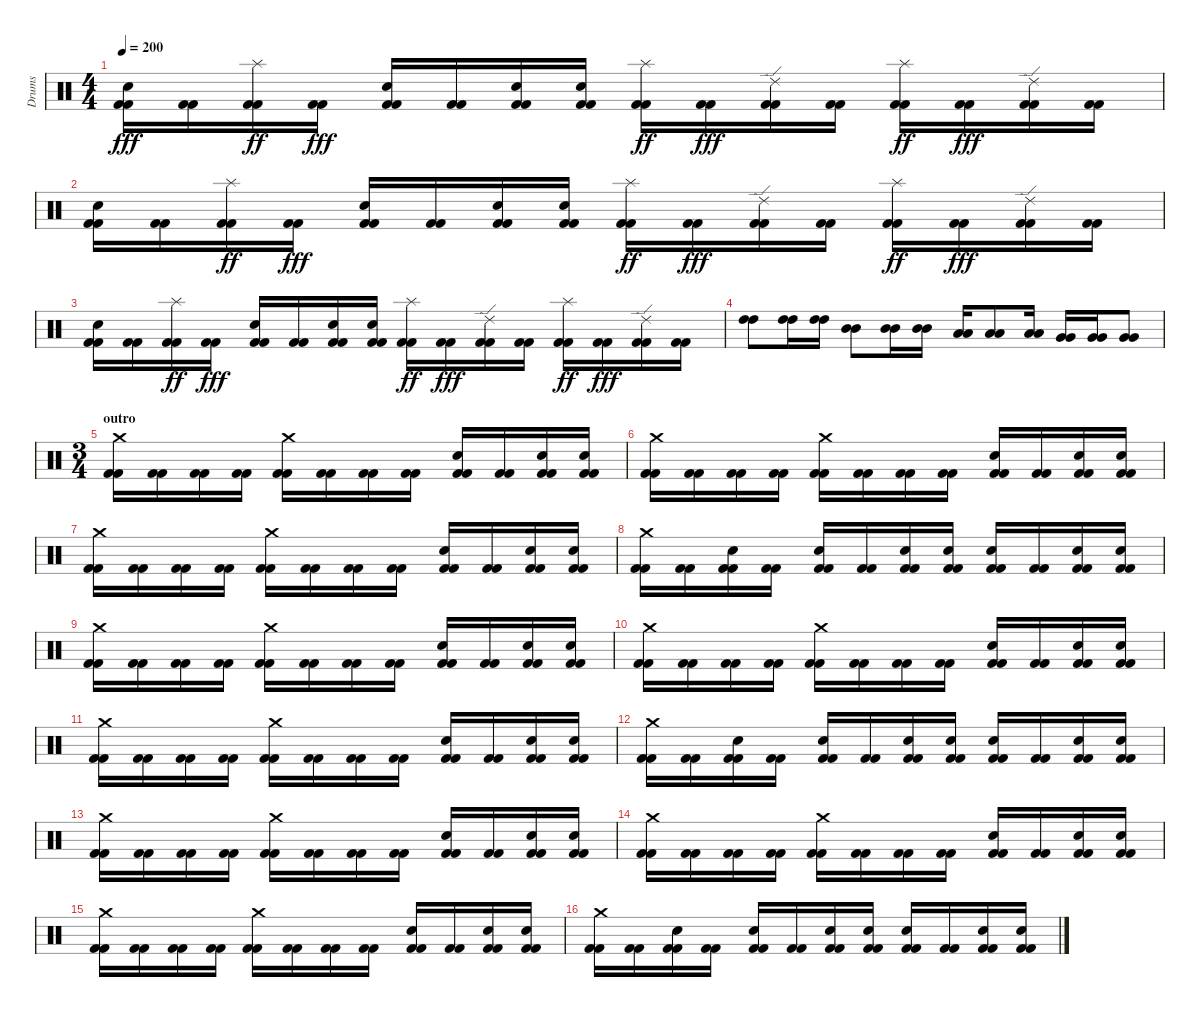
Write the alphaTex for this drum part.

\track ("Drums" "Drums") {instrument percussion}
\staff {score}
\articulation defaults
\ts (4 4)
\tempo 200
\clef neutral
\ks c
("Kick (hit) 2" "Kick (hit) 2" "Electric Snare (hit)").16{dy fff} ("Kick (hit) 2" "Kick (hit) 2").16 ("Kick (hit) 2" "Kick (hit) 2" "Splash (hit)").16{dy ff} ("Kick (hit) 2" "Kick (hit) 2").16{dy fff} ("Kick (hit) 2" "Kick (hit) 2" "Electric Snare (hit)").16 ("Kick (hit) 2" "Kick (hit) 2").16 ("Kick (hit) 2" "Kick (hit) 2" "Electric Snare (hit)").16 ("Kick (hit) 2" "Kick (hit) 2" "Electric Snare (hit)").16 ("Kick (hit) 2" "Kick (hit) 2" "Splash (hit)").16{dy ff} ("Kick (hit) 2" "Kick (hit) 2").16{dy fff} ("Kick (hit) 2" "Kick (hit) 2" "Ride (edge) 2").16 ("Kick (hit) 2" "Kick (hit) 2").16 ("Kick (hit) 2" "Kick (hit) 2" "Splash (hit)").16{dy ff} ("Kick (hit) 2" "Kick (hit) 2").16{dy fff} ("Kick (hit) 2" "Kick (hit) 2" "Ride (edge) 2").16 ("Kick (hit) 2" "Kick (hit) 2").16 |
("Kick (hit) 2" "Kick (hit) 2" "Electric Snare (hit)").16 ("Kick (hit) 2" "Kick (hit) 2").16 ("Kick (hit) 2" "Kick (hit) 2" "Splash (hit)").16{dy ff} ("Kick (hit) 2" "Kick (hit) 2").16{dy fff} ("Kick (hit) 2" "Kick (hit) 2" "Electric Snare (hit)").16 ("Kick (hit) 2" "Kick (hit) 2").16 ("Kick (hit) 2" "Kick (hit) 2" "Electric Snare (hit)").16 ("Kick (hit) 2" "Kick (hit) 2" "Electric Snare (hit)").16 ("Kick (hit) 2" "Kick (hit) 2" "Splash (hit)").16{dy ff} ("Kick (hit) 2" "Kick (hit) 2").16{dy fff} ("Kick (hit) 2" "Kick (hit) 2" "Ride (edge) 2").16 ("Kick (hit) 2" "Kick (hit) 2").16 ("Kick (hit) 2" "Kick (hit) 2" "Splash (hit)").16{dy ff} ("Kick (hit) 2" "Kick (hit) 2").16{dy fff} ("Kick (hit) 2" "Kick (hit) 2" "Ride (edge) 2").16 ("Kick (hit) 2" "Kick (hit) 2").16 |
("Kick (hit) 2" "Kick (hit) 2" "Electric Snare (hit)").16 ("Kick (hit) 2" "Kick (hit) 2").16 ("Kick (hit) 2" "Kick (hit) 2" "Splash (hit)").16{dy ff} ("Kick (hit) 2" "Kick (hit) 2").16{dy fff} ("Kick (hit) 2" "Kick (hit) 2" "Electric Snare (hit)").16 ("Kick (hit) 2" "Kick (hit) 2").16 ("Kick (hit) 2" "Kick (hit) 2" "Electric Snare (hit)").16 ("Kick (hit) 2" "Kick (hit) 2" "Electric Snare (hit)").16 ("Kick (hit) 2" "Kick (hit) 2" "Splash (hit)").16{dy ff} ("Kick (hit) 2" "Kick (hit) 2").16{dy fff} ("Kick (hit) 2" "Kick (hit) 2" "Ride (edge) 2").16 ("Kick (hit) 2" "Kick (hit) 2").16 ("Kick (hit) 2" "Kick (hit) 2" "Splash (hit)").16{dy ff} ("Kick (hit) 2" "Kick (hit) 2").16{dy fff} ("Kick (hit) 2" "Kick (hit) 2" "Ride (edge) 2").16 ("Kick (hit) 2" "Kick (hit) 2").16 |
("High Tom (hit)" "High Tom (hit)").8 ("High Tom (hit)" "High Tom (hit)").16 ("High Tom (hit)" "High Tom (hit)").16 ("Mid Tom (hit)" "Mid Tom (hit)").8 ("Mid Tom (hit)" "Mid Tom (hit)").16 ("Mid Tom (hit)" "Mid Tom (hit)").16 ("Low Tom (hit)" "Low Tom (hit)").16 ("Low Tom (hit)" "Low Tom (hit)").8 ("Low Tom (hit)" "Low Tom (hit)").16 ("Very Low Tom (hit)" "Very Low Tom (hit)").16 ("Very Low Tom (hit)" "Very Low Tom (hit)").16 ("Very Low Tom (hit)" "Very Low Tom (hit)").8 |
\ts (3 4)
\section ("" "outro")
("Crash medium (hit)" "Kick (hit) 2" "Kick (hit) 2").16 ("Kick (hit) 2" "Kick (hit) 2").16 ("Kick (hit) 2" "Kick (hit) 2").16 ("Kick (hit) 2" "Kick (hit) 2").16 ("Crash medium (hit)" "Kick (hit) 2" "Kick (hit) 2").16 ("Kick (hit) 2" "Kick (hit) 2").16 ("Kick (hit) 2" "Kick (hit) 2").16 ("Kick (hit) 2" "Kick (hit) 2").16 ("Electric Snare (hit)" "Kick (hit) 2" "Kick (hit) 2").16 ("Kick (hit) 2" "Kick (hit) 2").16 ("Electric Snare (hit)" "Kick (hit) 2" "Kick (hit) 2").16 ("Electric Snare (hit)" "Kick (hit) 2" "Kick (hit) 2").16 |
("Crash medium (hit)" "Kick (hit) 2" "Kick (hit) 2").16 ("Kick (hit) 2" "Kick (hit) 2").16 ("Kick (hit) 2" "Kick (hit) 2").16 ("Kick (hit) 2" "Kick (hit) 2").16 ("Crash medium (hit)" "Kick (hit) 2" "Kick (hit) 2").16 ("Kick (hit) 2" "Kick (hit) 2").16 ("Kick (hit) 2" "Kick (hit) 2").16 ("Kick (hit) 2" "Kick (hit) 2").16 ("Electric Snare (hit)" "Kick (hit) 2" "Kick (hit) 2").16 ("Kick (hit) 2" "Kick (hit) 2").16 ("Electric Snare (hit)" "Kick (hit) 2" "Kick (hit) 2").16 ("Electric Snare (hit)" "Kick (hit) 2" "Kick (hit) 2").16 |
("Crash medium (hit)" "Kick (hit) 2" "Kick (hit) 2").16 ("Kick (hit) 2" "Kick (hit) 2").16 ("Kick (hit) 2" "Kick (hit) 2").16 ("Kick (hit) 2" "Kick (hit) 2").16 ("Crash medium (hit)" "Kick (hit) 2" "Kick (hit) 2").16 ("Kick (hit) 2" "Kick (hit) 2").16 ("Kick (hit) 2" "Kick (hit) 2").16 ("Kick (hit) 2" "Kick (hit) 2").16 ("Electric Snare (hit)" "Kick (hit) 2" "Kick (hit) 2").16 ("Kick (hit) 2" "Kick (hit) 2").16 ("Electric Snare (hit)" "Kick (hit) 2" "Kick (hit) 2").16 ("Electric Snare (hit)" "Kick (hit) 2" "Kick (hit) 2").16 |
("Crash medium (hit)" "Kick (hit) 2" "Kick (hit) 2").16 ("Kick (hit) 2" "Kick (hit) 2").16 ("Electric Snare (hit)" "Kick (hit) 2" "Kick (hit) 2").16 ("Kick (hit) 2" "Kick (hit) 2").16 ("Electric Snare (hit)" "Kick (hit) 2" "Kick (hit) 2").16 ("Kick (hit) 2" "Kick (hit) 2").16 ("Electric Snare (hit)" "Kick (hit) 2" "Kick (hit) 2").16 ("Electric Snare (hit)" "Kick (hit) 2" "Kick (hit) 2").16 ("Electric Snare (hit)" "Kick (hit) 2" "Kick (hit) 2").16 ("Kick (hit) 2" "Kick (hit) 2").16 ("Electric Snare (hit)" "Kick (hit) 2" "Kick (hit) 2").16 ("Electric Snare (hit)" "Kick (hit) 2" "Kick (hit) 2").16 |
("Crash medium (hit)" "Kick (hit) 2" "Kick (hit) 2").16 ("Kick (hit) 2" "Kick (hit) 2").16 ("Kick (hit) 2" "Kick (hit) 2").16 ("Kick (hit) 2" "Kick (hit) 2").16 ("Crash medium (hit)" "Kick (hit) 2" "Kick (hit) 2").16 ("Kick (hit) 2" "Kick (hit) 2").16 ("Kick (hit) 2" "Kick (hit) 2").16 ("Kick (hit) 2" "Kick (hit) 2").16 ("Electric Snare (hit)" "Kick (hit) 2" "Kick (hit) 2").16 ("Kick (hit) 2" "Kick (hit) 2").16 ("Electric Snare (hit)" "Kick (hit) 2" "Kick (hit) 2").16 ("Electric Snare (hit)" "Kick (hit) 2" "Kick (hit) 2").16 |
("Crash medium (hit)" "Kick (hit) 2" "Kick (hit) 2").16 ("Kick (hit) 2" "Kick (hit) 2").16 ("Kick (hit) 2" "Kick (hit) 2").16 ("Kick (hit) 2" "Kick (hit) 2").16 ("Crash medium (hit)" "Kick (hit) 2" "Kick (hit) 2").16 ("Kick (hit) 2" "Kick (hit) 2").16 ("Kick (hit) 2" "Kick (hit) 2").16 ("Kick (hit) 2" "Kick (hit) 2").16 ("Electric Snare (hit)" "Kick (hit) 2" "Kick (hit) 2").16 ("Kick (hit) 2" "Kick (hit) 2").16 ("Electric Snare (hit)" "Kick (hit) 2" "Kick (hit) 2").16 ("Electric Snare (hit)" "Kick (hit) 2" "Kick (hit) 2").16 |
("Crash medium (hit)" "Kick (hit) 2" "Kick (hit) 2").16 ("Kick (hit) 2" "Kick (hit) 2").16 ("Kick (hit) 2" "Kick (hit) 2").16 ("Kick (hit) 2" "Kick (hit) 2").16 ("Crash medium (hit)" "Kick (hit) 2" "Kick (hit) 2").16 ("Kick (hit) 2" "Kick (hit) 2").16 ("Kick (hit) 2" "Kick (hit) 2").16 ("Kick (hit) 2" "Kick (hit) 2").16 ("Electric Snare (hit)" "Kick (hit) 2" "Kick (hit) 2").16 ("Kick (hit) 2" "Kick (hit) 2").16 ("Electric Snare (hit)" "Kick (hit) 2" "Kick (hit) 2").16 ("Electric Snare (hit)" "Kick (hit) 2" "Kick (hit) 2").16 |
("Crash medium (hit)" "Kick (hit) 2" "Kick (hit) 2").16 ("Kick (hit) 2" "Kick (hit) 2").16 ("Electric Snare (hit)" "Kick (hit) 2" "Kick (hit) 2").16 ("Kick (hit) 2" "Kick (hit) 2").16 ("Electric Snare (hit)" "Kick (hit) 2" "Kick (hit) 2").16 ("Kick (hit) 2" "Kick (hit) 2").16 ("Electric Snare (hit)" "Kick (hit) 2" "Kick (hit) 2").16 ("Electric Snare (hit)" "Kick (hit) 2" "Kick (hit) 2").16 ("Electric Snare (hit)" "Kick (hit) 2" "Kick (hit) 2").16 ("Kick (hit) 2" "Kick (hit) 2").16 ("Electric Snare (hit)" "Kick (hit) 2" "Kick (hit) 2").16 ("Electric Snare (hit)" "Kick (hit) 2" "Kick (hit) 2").16 |
("Crash medium (hit)" "Kick (hit) 2" "Kick (hit) 2").16 ("Kick (hit) 2" "Kick (hit) 2").16 ("Kick (hit) 2" "Kick (hit) 2").16 ("Kick (hit) 2" "Kick (hit) 2").16 ("Crash medium (hit)" "Kick (hit) 2" "Kick (hit) 2").16 ("Kick (hit) 2" "Kick (hit) 2").16 ("Kick (hit) 2" "Kick (hit) 2").16 ("Kick (hit) 2" "Kick (hit) 2").16 ("Electric Snare (hit)" "Kick (hit) 2" "Kick (hit) 2").16 ("Kick (hit) 2" "Kick (hit) 2").16 ("Electric Snare (hit)" "Kick (hit) 2" "Kick (hit) 2").16 ("Electric Snare (hit)" "Kick (hit) 2" "Kick (hit) 2").16 |
("Crash medium (hit)" "Kick (hit) 2" "Kick (hit) 2").16 ("Kick (hit) 2" "Kick (hit) 2").16 ("Kick (hit) 2" "Kick (hit) 2").16 ("Kick (hit) 2" "Kick (hit) 2").16 ("Crash medium (hit)" "Kick (hit) 2" "Kick (hit) 2").16 ("Kick (hit) 2" "Kick (hit) 2").16 ("Kick (hit) 2" "Kick (hit) 2").16 ("Kick (hit) 2" "Kick (hit) 2").16 ("Electric Snare (hit)" "Kick (hit) 2" "Kick (hit) 2").16 ("Kick (hit) 2" "Kick (hit) 2").16 ("Electric Snare (hit)" "Kick (hit) 2" "Kick (hit) 2").16 ("Electric Snare (hit)" "Kick (hit) 2" "Kick (hit) 2").16 |
("Crash medium (hit)" "Kick (hit) 2" "Kick (hit) 2").16 ("Kick (hit) 2" "Kick (hit) 2").16 ("Kick (hit) 2" "Kick (hit) 2").16 ("Kick (hit) 2" "Kick (hit) 2").16 ("Crash medium (hit)" "Kick (hit) 2" "Kick (hit) 2").16 ("Kick (hit) 2" "Kick (hit) 2").16 ("Kick (hit) 2" "Kick (hit) 2").16 ("Kick (hit) 2" "Kick (hit) 2").16 ("Electric Snare (hit)" "Kick (hit) 2" "Kick (hit) 2").16 ("Kick (hit) 2" "Kick (hit) 2").16 ("Electric Snare (hit)" "Kick (hit) 2" "Kick (hit) 2").16 ("Electric Snare (hit)" "Kick (hit) 2" "Kick (hit) 2").16 |
("Crash medium (hit)" "Kick (hit) 2" "Kick (hit) 2").16 ("Kick (hit) 2" "Kick (hit) 2").16 ("Electric Snare (hit)" "Kick (hit) 2" "Kick (hit) 2").16 ("Kick (hit) 2" "Kick (hit) 2").16 ("Electric Snare (hit)" "Kick (hit) 2" "Kick (hit) 2").16 ("Kick (hit) 2" "Kick (hit) 2").16 ("Electric Snare (hit)" "Kick (hit) 2" "Kick (hit) 2").16 ("Electric Snare (hit)" "Kick (hit) 2" "Kick (hit) 2").16 ("Electric Snare (hit)" "Kick (hit) 2" "Kick (hit) 2").16 ("Kick (hit) 2" "Kick (hit) 2").16 ("Electric Snare (hit)" "Kick (hit) 2" "Kick (hit) 2").16 ("Electric Snare (hit)" "Kick (hit) 2" "Kick (hit) 2").16
